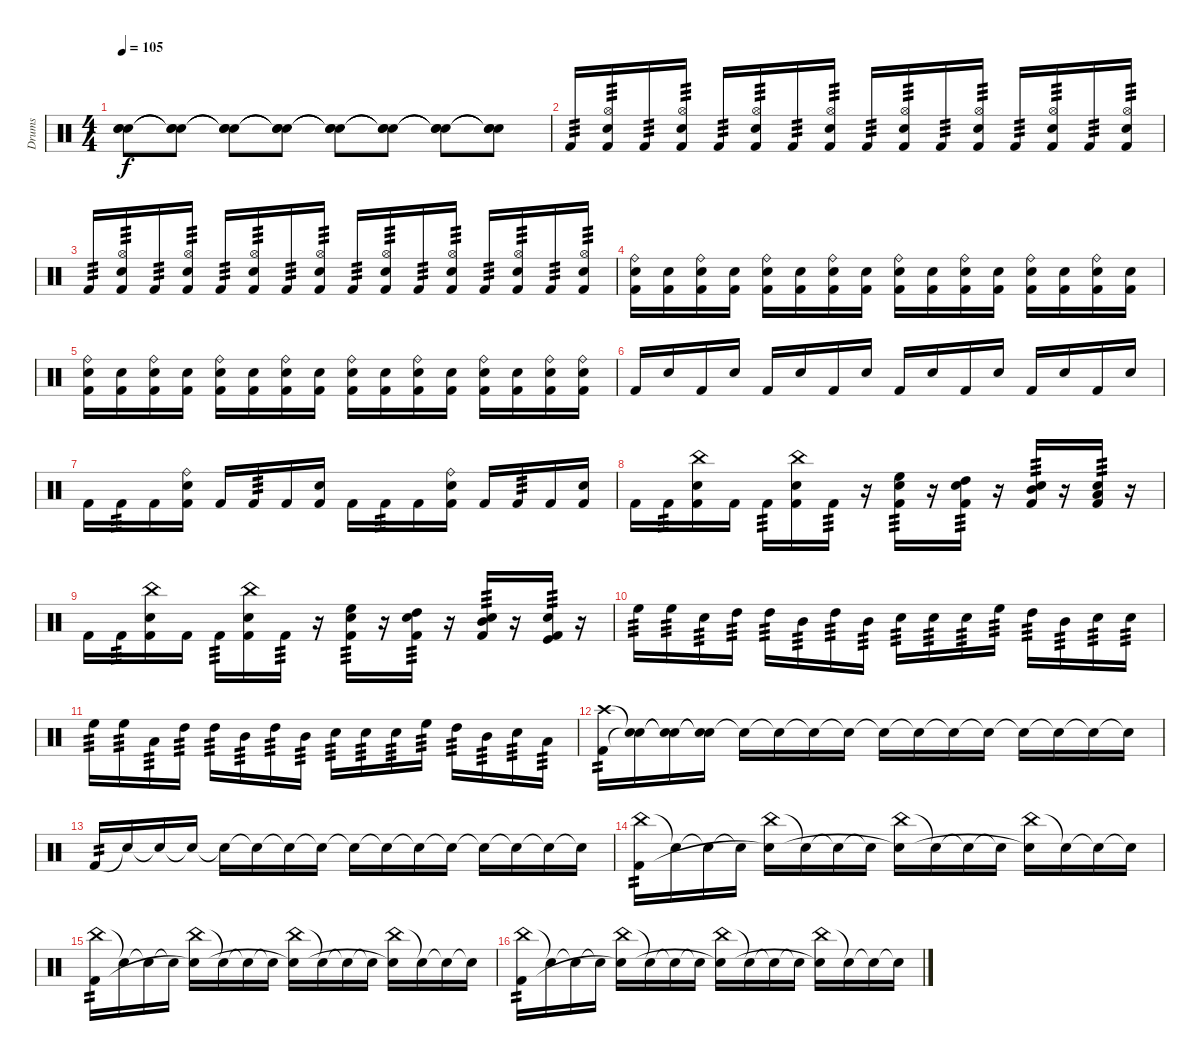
\track ("Drums" "Drums") {instrument percussion}
\staff {score}
\articulation defaults
\ts (4 4)
\tempo 105
\clef neutral
\ks c
("Snare (hit)"{t} "Snare (hit)"{t} "Snare (hit)"{t}).8{dy f} ("Snare (hit)"{t} "Snare (hit)"{t} "Snare (hit)"{t}).8 ("Snare (hit)"{t} "Snare (hit)"{t} "Snare (hit)"{t}).8 ("Snare (hit)"{t} "Snare (hit)"{t} "Snare (hit)"{t}).8 ("Snare (hit)"{t} "Snare (hit)"{t} "Snare (hit)"{t}).8 ("Snare (hit)"{t} "Snare (hit)"{t} "Snare (hit)"{t}).8 ("Snare (hit)"{t} "Snare (hit)"{t} "Snare (hit)"{t}).8 ("Snare (hit)"{t} "Snare (hit)"{t} "Snare (hit)"{t}).8 |
"Kick (hit) 2".16{tp 3} ("Hi-Hat (open)" "Electric Snare (hit)" "Kick (hit) 2").16{tp 3} "Kick (hit) 2".16{tp 3} ("Hi-Hat (open)" "Electric Snare (hit)" "Kick (hit) 2").16{tp 3} "Kick (hit) 2".16{tp 3} ("Hi-Hat (open)" "Electric Snare (hit)" "Kick (hit) 2").16{tp 3} "Kick (hit) 2".16{tp 3} ("Hi-Hat (open)" "Electric Snare (hit)" "Kick (hit) 2").16{tp 3} "Kick (hit) 2".16{tp 3} ("Hi-Hat (open)" "Electric Snare (hit)" "Kick (hit) 2").16{tp 3} "Kick (hit) 2".16{tp 3} ("Hi-Hat (open)" "Electric Snare (hit)" "Kick (hit) 2").16{tp 3} "Kick (hit) 2".16{tp 3} ("Hi-Hat (open)" "Electric Snare (hit)" "Kick (hit) 2").16{tp 3} "Kick (hit) 2".16{tp 3} ("Hi-Hat (open)" "Electric Snare (hit)" "Kick (hit) 2").16{tp 3} |
"Kick (hit) 2".16{tp 3} ("Hi-Hat (open)" "Electric Snare (hit)" "Kick (hit) 2").16{tp 3} "Kick (hit) 2".16{tp 3} ("Hi-Hat (open)" "Electric Snare (hit)" "Kick (hit) 2").16{tp 3} "Kick (hit) 2".16{tp 3} ("Hi-Hat (open)" "Electric Snare (hit)" "Kick (hit) 2").16{tp 3} "Kick (hit) 2".16{tp 3} ("Hi-Hat (open)" "Electric Snare (hit)" "Kick (hit) 2").16{tp 3} "Kick (hit) 2".16{tp 3} ("Hi-Hat (open)" "Electric Snare (hit)" "Kick (hit) 2").16{tp 3} "Kick (hit) 2".16{tp 3} ("Hi-Hat (open)" "Electric Snare (hit)" "Kick (hit) 2").16{tp 3} "Kick (hit) 2".16{tp 3} ("Hi-Hat (open)" "Electric Snare (hit)" "Kick (hit) 2").16{tp 3} "Kick (hit) 2".16{tp 3} ("Hi-Hat (open)" "Electric Snare (hit)" "Kick (hit) 2").16{tp 3} |
("Ride (bell)" "Electric Snare (hit)" "Kick (hit) 2").16 ("Electric Snare (hit)" "Kick (hit) 2").16 ("Ride (bell)" "Electric Snare (hit)" "Kick (hit) 2").16 ("Electric Snare (hit)" "Kick (hit) 2").16 ("Ride (bell)" "Electric Snare (hit)" "Kick (hit) 2").16 ("Electric Snare (hit)" "Kick (hit) 2").16 ("Ride (bell)" "Electric Snare (hit)" "Kick (hit) 2").16 ("Electric Snare (hit)" "Kick (hit) 2").16 ("Ride (bell)" "Electric Snare (hit)" "Kick (hit) 2").16 ("Electric Snare (hit)" "Kick (hit) 2").16 ("Ride (bell)" "Electric Snare (hit)" "Kick (hit) 2").16 ("Electric Snare (hit)" "Kick (hit) 2").16 ("Ride (bell)" "Electric Snare (hit)" "Kick (hit) 2").16 ("Electric Snare (hit)" "Kick (hit) 2").16 ("Ride (bell)" "Electric Snare (hit)" "Kick (hit) 2").16 ("Electric Snare (hit)" "Kick (hit) 2").16 |
("Ride (bell)" "Electric Snare (hit)" "Kick (hit) 2").16 ("Electric Snare (hit)" "Kick (hit) 2").16 ("Ride (bell)" "Electric Snare (hit)" "Kick (hit) 2").16 ("Electric Snare (hit)" "Kick (hit) 2").16 ("Ride (bell)" "Electric Snare (hit)" "Kick (hit) 2").16 ("Electric Snare (hit)" "Kick (hit) 2").16 ("Ride (bell)" "Electric Snare (hit)" "Kick (hit) 2").16 ("Electric Snare (hit)" "Kick (hit) 2").16 ("Ride (bell)" "Electric Snare (hit)" "Kick (hit) 2").16 ("Electric Snare (hit)" "Kick (hit) 2").16 ("Ride (bell)" "Electric Snare (hit)" "Kick (hit) 2").16 ("Electric Snare (hit)" "Kick (hit) 2").16 ("Ride (bell)" "Electric Snare (hit)" "Kick (hit) 2").16 ("Electric Snare (hit)" "Kick (hit) 2").16 ("Ride (bell)" "Electric Snare (hit)" "Kick (hit) 2").16 ("Ride (bell)" "Electric Snare (hit)" "Kick (hit) 2").16 |
"Kick (hit) 2".16 "Electric Snare (hit)".16 "Kick (hit) 2".16 "Electric Snare (hit)".16 "Kick (hit) 2".16 "Electric Snare (hit)".16 "Kick (hit) 2".16 "Electric Snare (hit)".16 "Kick (hit) 2".16 "Electric Snare (hit)".16 "Kick (hit) 2".16 "Electric Snare (hit)".16 "Kick (hit) 2".16 "Electric Snare (hit)".16 "Kick (hit) 2".16 "Electric Snare (hit)".16 |
"Kick (hit) 2".16 "Kick (hit) 2".16{tp 3} "Kick (hit) 2".16 ("Ride (bell)" "Electric Snare (hit)" "Kick (hit) 2").16 "Kick (hit) 2".16 "Kick (hit) 2".16{tp 3} "Kick (hit) 2".16 ("Electric Snare (hit)" "Kick (hit) 2").16 "Kick (hit) 2".16 "Kick (hit) 2".16{tp 3} "Kick (hit) 2".16 ("Ride (bell)" "Electric Snare (hit)" "Kick (hit) 2").16 "Kick (hit) 2".16 "Kick (hit) 2".16{tp 3} "Kick (hit) 2".16 ("Electric Snare (hit)" "Kick (hit) 2").16 |
"Kick (hit) 2".16 "Kick (hit) 2".16{tp 3} ("China (hit)" "Electric Snare (hit)" "Kick (hit) 2").16 "Kick (hit) 2".16 "Kick (hit) 2".16{tp 3} ("China (hit)" "Electric Snare (hit)" "Kick (hit) 2").16 "Kick (hit) 2".16{tp 3} r.16 ("High Floor Tom (hit)" "Electric Snare (hit)" "Kick (hit) 2").16{tp 3} r.16 ("High Tom (hit)" "Electric Snare (hit)" "Kick (hit) 2").16{tp 3} r.16 ("Mid Tom (hit)" "Electric Snare (hit)" "Kick (hit) 2").16{tp 3} r.16 ("Low Floor Tom (hit)" "Electric Snare (hit)" "Kick (hit) 2").16{tp 3} r.16 |
"Kick (hit) 2".16 "Kick (hit) 2".16{tp 3} ("China (hit)" "Electric Snare (hit)" "Kick (hit) 2").16 "Kick (hit) 2".16 "Kick (hit) 2".16{tp 3} ("China (hit)" "Electric Snare (hit)" "Kick (hit) 2").16 "Kick (hit) 2".16{tp 3} r.16 ("High Floor Tom (hit)" "Electric Snare (hit)" "Kick (hit) 2").16{tp 3} r.16 ("High Tom (hit)" "Electric Snare (hit)" "Kick (hit) 2").16{tp 3} r.16 ("Mid Tom (hit)" "Electric Snare (hit)" "Kick (hit) 2").16{tp 3} r.16 ("Kick (hit)" "Electric Snare (hit)" "Kick (hit) 2").16{tp 3} r.16 |
"High Floor Tom (hit)".16{tp 3} "High Floor Tom (hit)".16{tp 3} "Electric Snare (hit)".16{tp 3} "High Tom (hit)".16{tp 3} "High Tom (hit)".16{tp 3} "Mid Tom (hit)".16{tp 3} "High Tom (hit)".16{tp 3} "Mid Tom (hit)".16{tp 3} "Electric Snare (hit)".16{tp 3} "Electric Snare (hit)".16{tp 3} "Electric Snare (hit)".16{tp 3} "High Floor Tom (hit)".16{tp 3} "High Tom (hit)".16{tp 3} "Mid Tom (hit)".16{tp 3} "Electric Snare (hit)".16{tp 3} "Electric Snare (hit)".16{tp 3} |
"High Floor Tom (hit)".16{tp 3} "High Floor Tom (hit)".16{tp 3} "Low Tom (hit)".16{tp 3} "High Tom (hit)".16{tp 3} "High Tom (hit)".16{tp 3} "Mid Tom (hit)".16{tp 3} "High Tom (hit)".16{tp 3} "Mid Tom (hit)".16{tp 3} "Electric Snare (hit)".16{tp 3} "Electric Snare (hit)".16{tp 3} "Electric Snare (hit)".16{tp 3} "High Floor Tom (hit)".16{tp 3} "High Tom (hit)".16{tp 3} "Mid Tom (hit)".16{tp 3} "Electric Snare (hit)".16{tp 3} "Low Floor Tom (hit)".16{tp 3} |
("Crash high (hit)" "Kick (hit) 2").16{tp 2} ("Snare (hit)"{t} "Snare (hit)"{t}).16 ("Snare (hit)"{t} "Snare (hit)"{t}).16 ("Snare (hit)"{t} "Snare (hit)"{t}).16 "Snare (hit)"{t}.16 "Snare (hit)"{t}.16 "Snare (hit)"{t}.16 "Snare (hit)"{t}.16 "Snare (hit)"{t}.16 "Snare (hit)"{t}.16 "Snare (hit)"{t}.16 "Snare (hit)"{t}.16 "Snare (hit)"{t}.16 "Snare (hit)"{t}.16 "Snare (hit)"{t}.16 "Snare (hit)"{t}.16 |
"Kick (hit) 2".16{tp 2} "Snare (hit)"{t}.16 "Snare (hit)"{t}.16 "Snare (hit)"{t}.16 "Snare (hit)"{t}.16 "Snare (hit)"{t}.16 "Snare (hit)"{t}.16 "Snare (hit)"{t}.16 "Snare (hit)"{t}.16 "Snare (hit)"{t}.16 "Snare (hit)"{t}.16 "Snare (hit)"{t}.16 "Snare (hit)"{t}.16 "Snare (hit)"{t}.16 "Snare (hit)"{t}.16 "Snare (hit)"{t}.16 |
("China (hit)" "Kick (hit) 2").16{tp 2} "Snare (hit)"{t}.16 "Snare (hit)"{t}.16 "Snare (hit)"{t}.16 ("China (hit)" "Snare (hit)"{t}).16 "Snare (hit)"{t}.16 "Snare (hit)"{t}.16 "Snare (hit)"{t}.16 ("China (hit)" "Snare (hit)"{t}).16 "Snare (hit)"{t}.16 "Snare (hit)"{t}.16 "Snare (hit)"{t}.16 ("China (hit)" "Snare (hit)"{t}).16 "Snare (hit)"{t}.16 "Snare (hit)"{t}.16 "Snare (hit)"{t}.16 |
("China (hit)" "Kick (hit) 2").16{tp 2} "Snare (hit)"{t}.16 "Snare (hit)"{t}.16 "Snare (hit)"{t}.16 ("China (hit)" "Snare (hit)"{t}).16 "Snare (hit)"{t}.16 "Snare (hit)"{t}.16 "Snare (hit)"{t}.16 ("China (hit)" "Snare (hit)"{t}).16 "Snare (hit)"{t}.16 "Snare (hit)"{t}.16 "Snare (hit)"{t}.16 ("China (hit)" "Snare (hit)"{t}).16 "Snare (hit)"{t}.16 "Snare (hit)"{t}.16 "Snare (hit)"{t}.16 |
("China (hit)" "Kick (hit) 2").16{tp 2} "Snare (hit)"{t}.16 "Snare (hit)"{t}.16 "Snare (hit)"{t}.16 ("China (hit)" "Snare (hit)"{t}).16 "Snare (hit)"{t}.16 "Snare (hit)"{t}.16 "Snare (hit)"{t}.16 ("China (hit)" "Snare (hit)"{t}).16 "Snare (hit)"{t}.16 "Snare (hit)"{t}.16 "Snare (hit)"{t}.16 ("China (hit)" "Snare (hit)"{t}).16 "Snare (hit)"{t}.16 "Snare (hit)"{t}.16 "Snare (hit)"{t}.16
